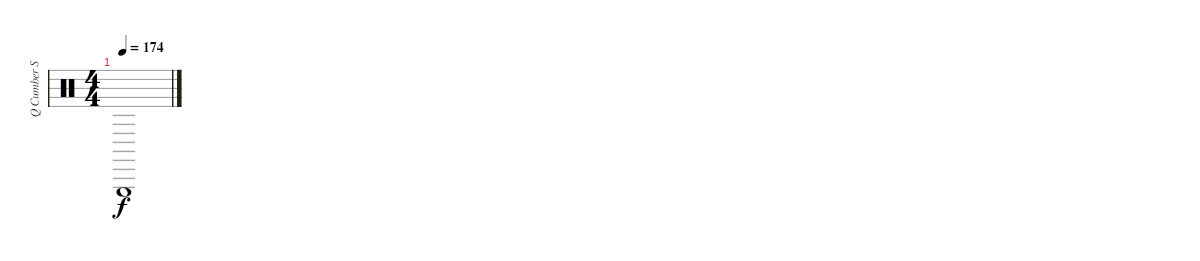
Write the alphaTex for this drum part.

\track ("Q Cumber Slice" "Q Cumber S") {instrument percussion}
\staff {score}
\articulation defaults
\ts (4 4)
\tempo 174
\clef neutral
\ks c "Triangle (hit)".1{dy f}
